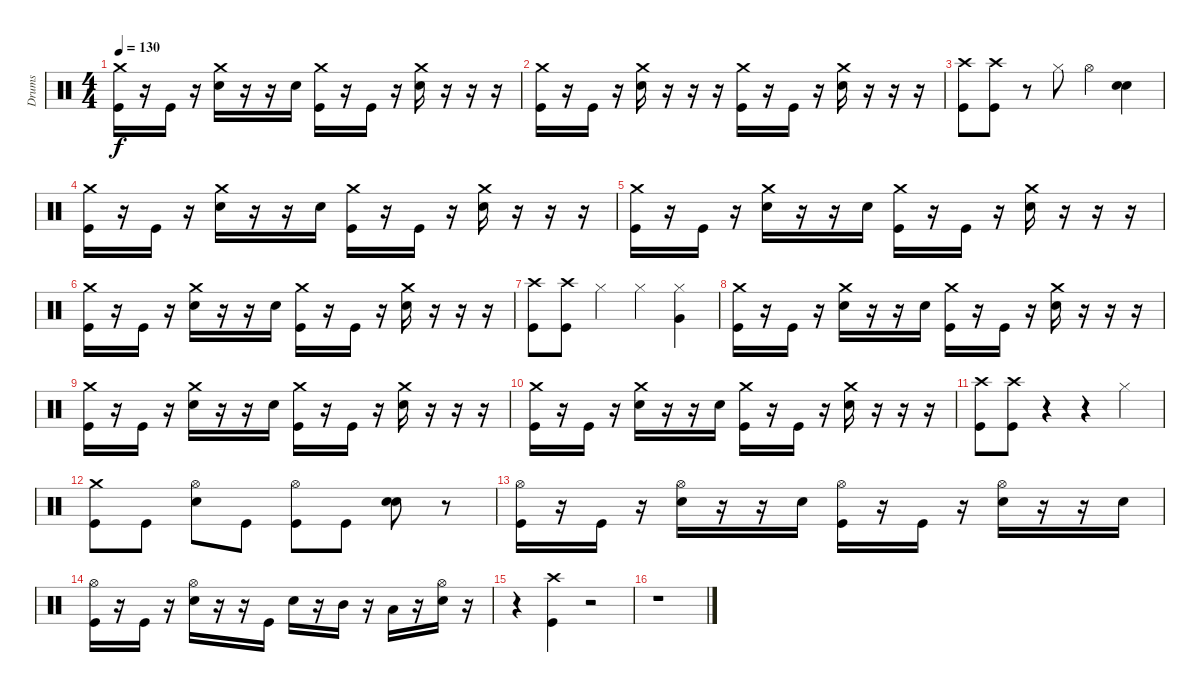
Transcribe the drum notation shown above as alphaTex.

\track ("Drums" "Drums") {instrument percussion}
\staff {score}
\articulation defaults
\ts (4 4)
\tempo 130
\clef neutral
\ks c
("Crash medium (hit)" "Kick (hit)").16{dy f} r.16 "Kick (hit)".16 r.16 ("Crash medium (hit)" "Snare (hit) 2").16 r.16 r.16 "Snare (hit) 2".16 ("Crash medium (hit)" "Kick (hit)").16 r.16 "Kick (hit)".16 r.16 ("Crash medium (hit)" "Snare (hit) 2").16 r.16 r.16 r.16 |
("Crash medium (hit)" "Kick (hit)").16 r.16 "Kick (hit)".16 r.16 ("Crash medium (hit)" "Snare (hit) 2").16 r.16 r.16 r.16 ("Crash medium (hit)" "Kick (hit)").16 r.16 "Kick (hit)".16 r.16 ("Crash medium (hit)" "Snare (hit) 2").16 r.16 r.16 r.16 |
("Crash high (hit)" "Kick (hit)").8 ("Crash high (hit)" "Kick (hit)").8 r.8 "Hi-Hat (closed)".8 "Hi-Hat (open)".4 ("Snare (hit) 2" "Snare (hit) 2").4 |
("Crash medium (hit)" "Kick (hit)").16 r.16 "Kick (hit)".16 r.16 ("Crash medium (hit)" "Snare (hit) 2").16 r.16 r.16 "Snare (hit) 2".16 ("Crash medium (hit)" "Kick (hit)").16 r.16 "Kick (hit)".16 r.16 ("Crash medium (hit)" "Snare (hit) 2").16 r.16 r.16 r.16 |
("Crash medium (hit)" "Kick (hit)").16 r.16 "Kick (hit)".16 r.16 ("Crash medium (hit)" "Snare (hit) 2").16 r.16 r.16 "Snare (hit) 2".16 ("Crash medium (hit)" "Kick (hit)").16 r.16 "Kick (hit)".16 r.16 ("Crash medium (hit)" "Snare (hit) 2").16 r.16 r.16 r.16 |
("Crash medium (hit)" "Kick (hit)").16 r.16 "Kick (hit)".16 r.16 ("Crash medium (hit)" "Snare (hit) 2").16 r.16 r.16 "Snare (hit) 2".16 ("Crash medium (hit)" "Kick (hit)").16 r.16 "Kick (hit)".16 r.16 ("Crash medium (hit)" "Snare (hit) 2").16 r.16 r.16 r.16 |
("Crash high (hit)" "Kick (hit)").8 ("Crash high (hit)" "Kick (hit)").8 "Hi-Hat (closed)".4 "Hi-Hat (closed)".4 ("Hi-Hat (closed)" "Very Low Tom (hit)").4 |
("Crash medium (hit)" "Kick (hit)").16 r.16 "Kick (hit)".16 r.16 ("Crash medium (hit)" "Snare (hit) 2").16 r.16 r.16 "Snare (hit) 2".16 ("Crash medium (hit)" "Kick (hit)").16 r.16 "Kick (hit)".16 r.16 ("Crash medium (hit)" "Snare (hit) 2").16 r.16 r.16 r.16 |
("Crash medium (hit)" "Kick (hit)").16 r.16 "Kick (hit)".16 r.16 ("Crash medium (hit)" "Snare (hit) 2").16 r.16 r.16 "Snare (hit) 2".16 ("Crash medium (hit)" "Kick (hit)").16 r.16 "Kick (hit)".16 r.16 ("Crash medium (hit)" "Snare (hit) 2").16 r.16 r.16 r.16 |
("Crash medium (hit)" "Kick (hit)").16 r.16 "Kick (hit)".16 r.16 ("Crash medium (hit)" "Snare (hit) 2").16 r.16 r.16 "Snare (hit) 2".16 ("Crash medium (hit)" "Kick (hit)").16 r.16 "Kick (hit)".16 r.16 ("Crash medium (hit)" "Snare (hit) 2").16 r.16 r.16 r.16 |
("Crash high (hit)" "Kick (hit)").8 ("Crash high (hit)" "Kick (hit)").8 r.4 r.4 "Hi-Hat (closed)".4 |
("Crash medium (hit)" "Kick (hit)").8 "Kick (hit)".8 ("Hi-Hat (open)" "Snare (hit) 2").8 "Kick (hit)".8 ("Hi-Hat (open)" "Kick (hit)").8 "Kick (hit)".8 ("Snare (hit) 2" "Snare (hit) 2").8 r.8 |
("Hi-Hat (open)" "Kick (hit)").16 r.16 "Kick (hit)".16 r.16 ("Hi-Hat (open)" "Snare (hit) 2").16 r.16 r.16 "Snare (hit) 2".16 ("Hi-Hat (open)" "Kick (hit)").16 r.16 "Kick (hit)".16 r.16 ("Hi-Hat (open)" "Snare (hit) 2").16 r.16 r.16 "Snare (hit) 2".16 |
("Hi-Hat (open)" "Kick (hit)").16 r.16 "Kick (hit)".16 r.16 ("Hi-Hat (open)" "Snare (hit) 2").16 r.16 r.16 "Kick (hit)".16 "Snare (hit) 2".16 r.16 "Mid Tom (hit)".16 r.16 "Low Tom (hit)".16 r.16 ("Hi-Hat (open)" "Snare (hit) 2").16 r.16 |
r.4 ("Crash high (hit)" "Kick (hit)").4 r.2 |
r.1
